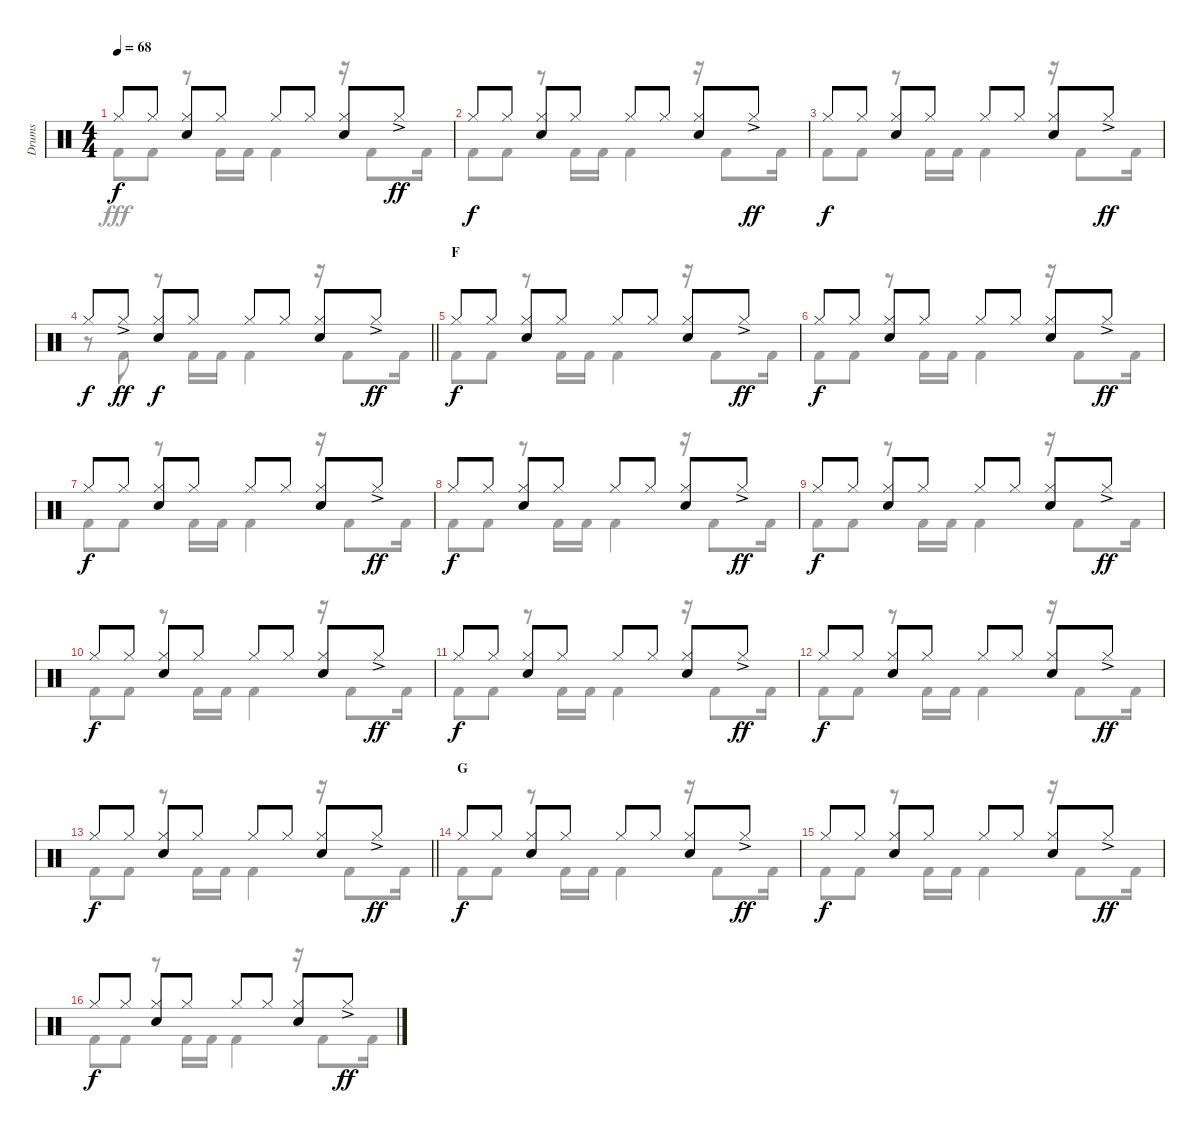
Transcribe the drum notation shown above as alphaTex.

\track ("Drums" "Drums") {instrument percussion}
\staff {score}
\articulation defaults
\voice
\ts (4 4)
\tempo 68
\clef neutral
\ks c "Hi-Hat (closed)".8{dy f} "Hi-Hat (closed)".8
("Hi-Hat (closed)" "Snare (hit) 2").8 "Hi-Hat (closed)".8 "Hi-Hat (closed)".8 "Hi-Hat (closed)".8 ("Hi-Hat (closed)" "Snare (hit) 2").8 "Hi-Hat (closed)"{ac}.8{dy ff} |
"Hi-Hat (closed)".8{dy f} "Hi-Hat (closed)".8 ("Hi-Hat (closed)" "Snare (hit) 2").8 "Hi-Hat (closed)".8 "Hi-Hat (closed)".8 "Hi-Hat (closed)".8 ("Hi-Hat (closed)" "Snare (hit) 2").8 "Hi-Hat (closed)"{ac}.8{dy ff} |
"Hi-Hat (closed)".8{dy f} "Hi-Hat (closed)".8 ("Hi-Hat (closed)" "Snare (hit) 2").8 "Hi-Hat (closed)".8 "Hi-Hat (closed)".8 "Hi-Hat (closed)".8 ("Hi-Hat (closed)" "Snare (hit) 2").8 "Hi-Hat (closed)"{ac}.8{dy ff} |
\barLineRight lightlight "Hi-Hat (closed)".8{dy f} "Hi-Hat (closed)"{ac}.8{dy ff}
("Hi-Hat (closed)" "Snare (hit) 2").8{dy f} "Hi-Hat (closed)".8 "Hi-Hat (closed)".8 "Hi-Hat (closed)".8 ("Hi-Hat (closed)" "Snare (hit) 2").8 "Hi-Hat (closed)"{ac}.8{dy ff} |
\section ("" "F")
"Hi-Hat (closed)".8{dy f} "Hi-Hat (closed)".8 ("Hi-Hat (closed)" "Snare (hit) 2").8 "Hi-Hat (closed)".8 "Hi-Hat (closed)".8 "Hi-Hat (closed)".8 ("Hi-Hat (closed)" "Snare (hit) 2").8 "Hi-Hat (closed)"{ac}.8{dy ff} |
"Hi-Hat (closed)".8{dy f} "Hi-Hat (closed)".8 ("Hi-Hat (closed)" "Snare (hit) 2").8 "Hi-Hat (closed)".8 "Hi-Hat (closed)".8 "Hi-Hat (closed)".8 ("Hi-Hat (closed)" "Snare (hit) 2").8 "Hi-Hat (closed)"{ac}.8{dy ff} |
"Hi-Hat (closed)".8{dy f} "Hi-Hat (closed)".8 ("Hi-Hat (closed)" "Snare (hit) 2").8 "Hi-Hat (closed)".8 "Hi-Hat (closed)".8 "Hi-Hat (closed)".8 ("Hi-Hat (closed)" "Snare (hit) 2").8 "Hi-Hat (closed)"{ac}.8{dy ff} |
"Hi-Hat (closed)".8{dy f} "Hi-Hat (closed)".8 ("Hi-Hat (closed)" "Snare (hit) 2").8 "Hi-Hat (closed)".8 "Hi-Hat (closed)".8 "Hi-Hat (closed)".8 ("Hi-Hat (closed)" "Snare (hit) 2").8 "Hi-Hat (closed)"{ac}.8{dy ff} |
"Hi-Hat (closed)".8{dy f} "Hi-Hat (closed)".8 ("Hi-Hat (closed)" "Snare (hit) 2").8 "Hi-Hat (closed)".8 "Hi-Hat (closed)".8 "Hi-Hat (closed)".8 ("Hi-Hat (closed)" "Snare (hit) 2").8 "Hi-Hat (closed)"{ac}.8{dy ff} |
"Hi-Hat (closed)".8{dy f} "Hi-Hat (closed)".8 ("Hi-Hat (closed)" "Snare (hit) 2").8 "Hi-Hat (closed)".8 "Hi-Hat (closed)".8 "Hi-Hat (closed)".8 ("Hi-Hat (closed)" "Snare (hit) 2").8 "Hi-Hat (closed)"{ac}.8{dy ff} |
"Hi-Hat (closed)".8{dy f} "Hi-Hat (closed)".8 ("Hi-Hat (closed)" "Snare (hit) 2").8 "Hi-Hat (closed)".8 "Hi-Hat (closed)".8 "Hi-Hat (closed)".8 ("Hi-Hat (closed)" "Snare (hit) 2").8 "Hi-Hat (closed)"{ac}.8{dy ff} |
"Hi-Hat (closed)".8{dy f} "Hi-Hat (closed)".8 ("Hi-Hat (closed)" "Snare (hit) 2").8 "Hi-Hat (closed)".8 "Hi-Hat (closed)".8 "Hi-Hat (closed)".8 ("Hi-Hat (closed)" "Snare (hit) 2").8 "Hi-Hat (closed)"{ac}.8{dy ff} |
\barLineRight lightlight "Hi-Hat (closed)".8{dy f} "Hi-Hat (closed)".8
("Hi-Hat (closed)" "Snare (hit) 2").8 "Hi-Hat (closed)".8 "Hi-Hat (closed)".8 "Hi-Hat (closed)".8 ("Hi-Hat (closed)" "Snare (hit) 2").8 "Hi-Hat (closed)"{ac}.8{dy ff} |
\section ("" "G")
"Hi-Hat (closed)".8{dy f} "Hi-Hat (closed)".8 ("Hi-Hat (closed)" "Snare (hit) 2").8 "Hi-Hat (closed)".8 "Hi-Hat (closed)".8 "Hi-Hat (closed)".8 ("Hi-Hat (closed)" "Snare (hit) 2").8 "Hi-Hat (closed)"{ac}.8{dy ff} |
"Hi-Hat (closed)".8{dy f} "Hi-Hat (closed)".8 ("Hi-Hat (closed)" "Snare (hit) 2").8 "Hi-Hat (closed)".8 "Hi-Hat (closed)".8 "Hi-Hat (closed)".8 ("Hi-Hat (closed)" "Snare (hit) 2").8 "Hi-Hat (closed)"{ac}.8{dy ff} |
"Hi-Hat (closed)".8{dy f} "Hi-Hat (closed)".8 ("Hi-Hat (closed)" "Snare (hit) 2").8 "Hi-Hat (closed)".8 "Hi-Hat (closed)".8 "Hi-Hat (closed)".8 ("Hi-Hat (closed)" "Snare (hit) 2").8 "Hi-Hat (closed)"{ac}.8{dy ff}
\voice
\clef neutral
\ottava regular
\simile none
\ks c "Kick (hit) 2".8{dy fff} "Kick (hit) 2".8
r.8 "Kick (hit) 2".16 "Kick (hit) 2".16 "Kick (hit) 2".4 r.16 "Kick (hit) 2".8 "Kick (hit) 2".16 |
"Kick (hit) 2".8 "Kick (hit) 2".8 r.8 "Kick (hit) 2".16 "Kick (hit) 2".16 "Kick (hit) 2".4 r.16 "Kick (hit) 2".8 "Kick (hit) 2".16 |
"Kick (hit) 2".8 "Kick (hit) 2".8 r.8 "Kick (hit) 2".16 "Kick (hit) 2".16 "Kick (hit) 2".4 r.16 "Kick (hit) 2".8 "Kick (hit) 2".16 |
\barLineRight lightlight
r.8 "Kick (hit) 2".8 r.8 "Kick (hit) 2".16 "Kick (hit) 2".16 "Kick (hit) 2".4 r.16 "Kick (hit) 2".8 "Kick (hit) 2".16 |
"Kick (hit) 2".8 "Kick (hit) 2".8 r.8 "Kick (hit) 2".16 "Kick (hit) 2".16 "Kick (hit) 2".4 r.16 "Kick (hit) 2".8 "Kick (hit) 2".16 |
"Kick (hit) 2".8 "Kick (hit) 2".8 r.8 "Kick (hit) 2".16 "Kick (hit) 2".16 "Kick (hit) 2".4 r.16 "Kick (hit) 2".8 "Kick (hit) 2".16 |
"Kick (hit) 2".8 "Kick (hit) 2".8 r.8 "Kick (hit) 2".16 "Kick (hit) 2".16 "Kick (hit) 2".4 r.16 "Kick (hit) 2".8 "Kick (hit) 2".16 |
"Kick (hit) 2".8 "Kick (hit) 2".8 r.8 "Kick (hit) 2".16 "Kick (hit) 2".16 "Kick (hit) 2".4 r.16 "Kick (hit) 2".8 "Kick (hit) 2".16 |
"Kick (hit) 2".8 "Kick (hit) 2".8 r.8 "Kick (hit) 2".16 "Kick (hit) 2".16 "Kick (hit) 2".4 r.16 "Kick (hit) 2".8 "Kick (hit) 2".16 |
"Kick (hit) 2".8 "Kick (hit) 2".8 r.8 "Kick (hit) 2".16 "Kick (hit) 2".16 "Kick (hit) 2".4 r.16 "Kick (hit) 2".8 "Kick (hit) 2".16 |
"Kick (hit) 2".8 "Kick (hit) 2".8 r.8 "Kick (hit) 2".16 "Kick (hit) 2".16 "Kick (hit) 2".4 r.16 "Kick (hit) 2".8 "Kick (hit) 2".16 |
"Kick (hit) 2".8 "Kick (hit) 2".8 r.8 "Kick (hit) 2".16 "Kick (hit) 2".16 "Kick (hit) 2".4 r.16 "Kick (hit) 2".8 "Kick (hit) 2".16 |
\barLineRight lightlight "Kick (hit) 2".8 "Kick (hit) 2".8
r.8 "Kick (hit) 2".16 "Kick (hit) 2".16 "Kick (hit) 2".4 r.16 "Kick (hit) 2".8 "Kick (hit) 2".16 |
"Kick (hit) 2".8 "Kick (hit) 2".8 r.8 "Kick (hit) 2".16 "Kick (hit) 2".16 "Kick (hit) 2".4 r.16 "Kick (hit) 2".8 "Kick (hit) 2".16 |
"Kick (hit) 2".8 "Kick (hit) 2".8 r.8 "Kick (hit) 2".16 "Kick (hit) 2".16 "Kick (hit) 2".4 r.16 "Kick (hit) 2".8 "Kick (hit) 2".16 |
"Kick (hit) 2".8 "Kick (hit) 2".8 r.8 "Kick (hit) 2".16 "Kick (hit) 2".16 "Kick (hit) 2".4 r.16 "Kick (hit) 2".8 "Kick (hit) 2".16
